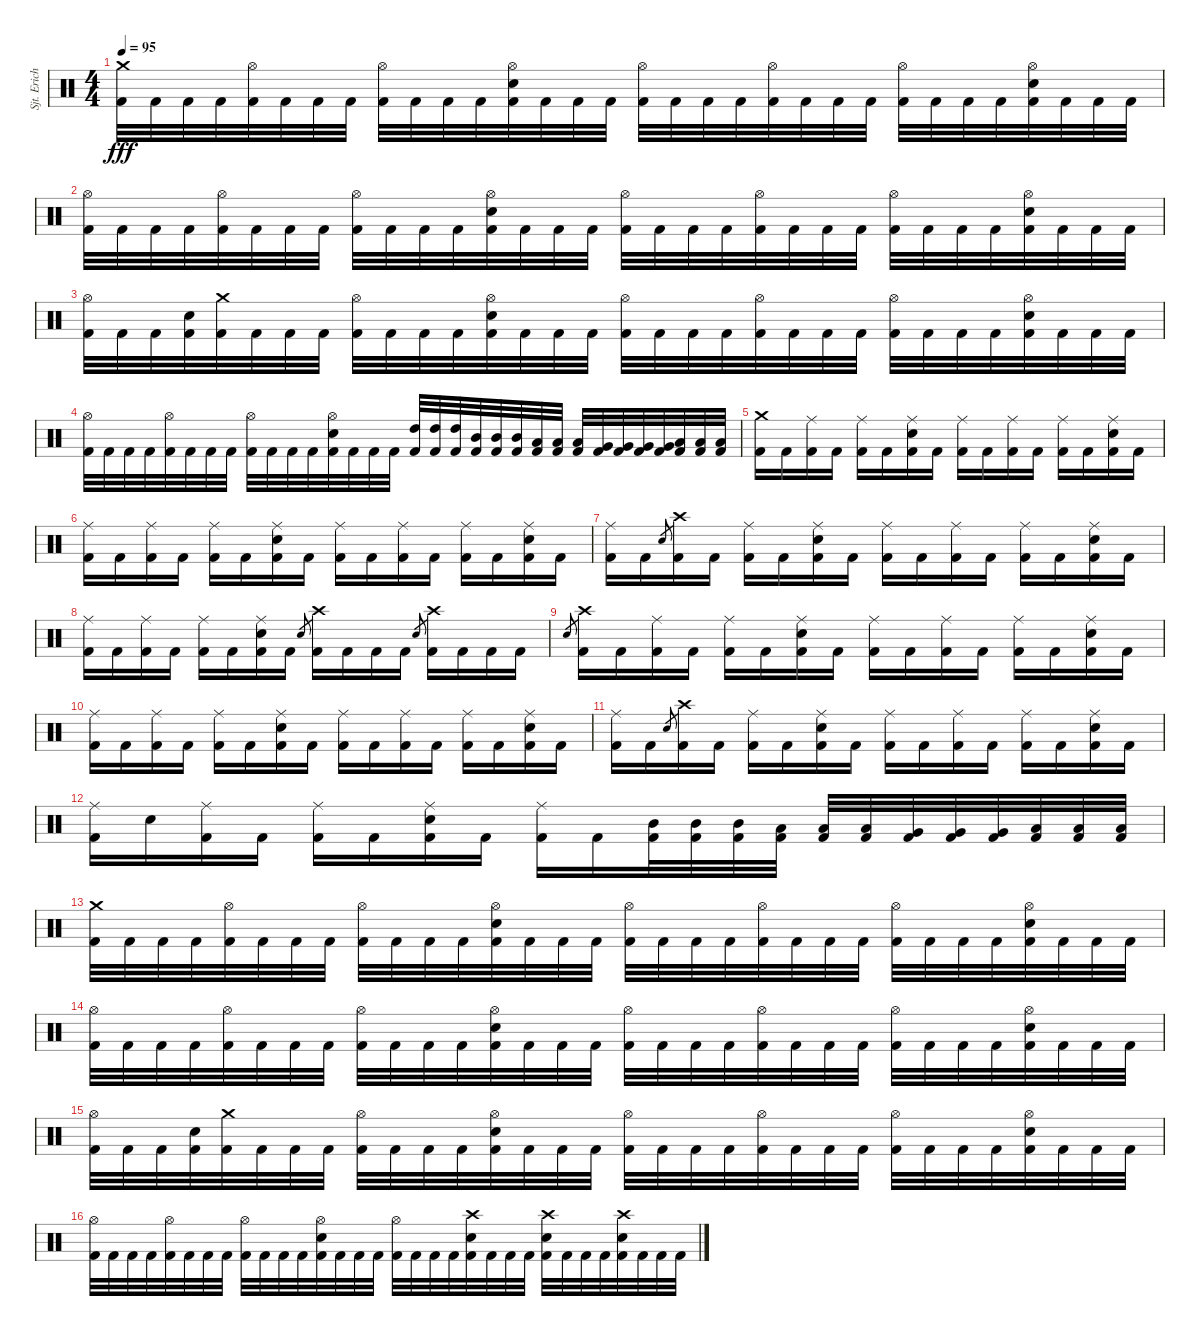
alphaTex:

\track ("Sjt. Erichsen" "Sjt. Erich") {instrument percussion}
\staff {score}
\articulation defaults
\ts (4 4)
\tempo 95
\clef neutral
\ks c
("Crash medium (hit)" "Kick (hit) 2").32{dy fff} "Kick (hit) 2".32 "Kick (hit) 2".32 "Kick (hit) 2".32 ("Hi-Hat (open)" "Kick (hit) 2").32 "Kick (hit) 2".32 "Kick (hit) 2".32 "Kick (hit) 2".32 ("Hi-Hat (open)" "Kick (hit) 2").32 "Kick (hit) 2".32 "Kick (hit) 2".32 "Kick (hit) 2".32 ("Hi-Hat (open)" "Electric Snare (hit)" "Kick (hit) 2").32 "Kick (hit) 2".32 "Kick (hit) 2".32 "Kick (hit) 2".32 ("Hi-Hat (open)" "Kick (hit) 2").32 "Kick (hit) 2".32 "Kick (hit) 2".32 "Kick (hit) 2".32 ("Hi-Hat (open)" "Kick (hit) 2").32 "Kick (hit) 2".32 "Kick (hit) 2".32 "Kick (hit) 2".32 ("Hi-Hat (open)" "Kick (hit) 2").32 "Kick (hit) 2".32 "Kick (hit) 2".32 "Kick (hit) 2".32 ("Hi-Hat (open)" "Electric Snare (hit)" "Kick (hit) 2").32 "Kick (hit) 2".32 "Kick (hit) 2".32 "Kick (hit) 2".32 |
("Hi-Hat (open)" "Kick (hit) 2").32 "Kick (hit) 2".32 "Kick (hit) 2".32 "Kick (hit) 2".32 ("Hi-Hat (open)" "Kick (hit) 2").32 "Kick (hit) 2".32 "Kick (hit) 2".32 "Kick (hit) 2".32 ("Hi-Hat (open)" "Kick (hit) 2").32 "Kick (hit) 2".32 "Kick (hit) 2".32 "Kick (hit) 2".32 ("Hi-Hat (open)" "Electric Snare (hit)" "Kick (hit) 2").32 "Kick (hit) 2".32 "Kick (hit) 2".32 "Kick (hit) 2".32 ("Hi-Hat (open)" "Kick (hit) 2").32 "Kick (hit) 2".32 "Kick (hit) 2".32 "Kick (hit) 2".32 ("Hi-Hat (open)" "Kick (hit) 2").32 "Kick (hit) 2".32 "Kick (hit) 2".32 "Kick (hit) 2".32 ("Hi-Hat (open)" "Kick (hit) 2").32 "Kick (hit) 2".32 "Kick (hit) 2".32 "Kick (hit) 2".32 ("Hi-Hat (open)" "Electric Snare (hit)" "Kick (hit) 2").32 "Kick (hit) 2".32 "Kick (hit) 2".32 "Kick (hit) 2".32 |
("Hi-Hat (open)" "Kick (hit) 2").32 "Kick (hit) 2".32 "Kick (hit) 2".32 ("Electric Snare (hit)" "Kick (hit) 2").32 ("Crash medium (hit)" "Kick (hit) 2").32 "Kick (hit) 2".32 "Kick (hit) 2".32 "Kick (hit) 2".32 ("Hi-Hat (open)" "Kick (hit) 2").32 "Kick (hit) 2".32 "Kick (hit) 2".32 "Kick (hit) 2".32 ("Hi-Hat (open)" "Electric Snare (hit)" "Kick (hit) 2").32 "Kick (hit) 2".32 "Kick (hit) 2".32 "Kick (hit) 2".32 ("Hi-Hat (open)" "Kick (hit) 2").32 "Kick (hit) 2".32 "Kick (hit) 2".32 "Kick (hit) 2".32 ("Hi-Hat (open)" "Kick (hit) 2").32 "Kick (hit) 2".32 "Kick (hit) 2".32 "Kick (hit) 2".32 ("Hi-Hat (open)" "Kick (hit) 2").32 "Kick (hit) 2".32 "Kick (hit) 2".32 "Kick (hit) 2".32 ("Hi-Hat (open)" "Electric Snare (hit)" "Kick (hit) 2").32 "Kick (hit) 2".32 "Kick (hit) 2".32 "Kick (hit) 2".32 |
("Hi-Hat (open)" "Kick (hit) 2").32 "Kick (hit) 2".32 "Kick (hit) 2".32 "Kick (hit) 2".32 ("Hi-Hat (open)" "Kick (hit) 2").32 "Kick (hit) 2".32 "Kick (hit) 2".32 "Kick (hit) 2".32 ("Hi-Hat (open)" "Kick (hit) 2").32 "Kick (hit) 2".32 "Kick (hit) 2".32 "Kick (hit) 2".32 ("Hi-Hat (open)" "Electric Snare (hit)" "Kick (hit) 2").32 "Kick (hit) 2".32 "Kick (hit) 2".32 "Kick (hit) 2".32 ("High Tom (hit)" "Kick (hit) 2").32 ("High Tom (hit)" "Kick (hit) 2").32 ("High Tom (hit)" "Kick (hit) 2").32 ("Mid Tom (hit)" "Kick (hit) 2").32 ("Mid Tom (hit)" "Kick (hit) 2").32 ("Mid Tom (hit)" "Kick (hit) 2").32 ("Low Tom (hit)" "Kick (hit) 2").32 ("Low Tom (hit)" "Kick (hit) 2").32 ("Low Tom (hit)" "Kick (hit) 2").32 ("Very Low Tom (hit)" "Kick (hit) 2").32 ("Very Low Tom (hit)" "Kick (hit) 2").32 ("Very Low Tom (hit)" "Kick (hit) 2").32 ("Very Low Tom (hit)" "Kick (hit) 2").32 ("Low Floor Tom (hit)" "Kick (hit) 2").32 ("Low Floor Tom (hit)" "Kick (hit) 2").32 ("Low Floor Tom (hit)" "Kick (hit) 2").32 |
("Crash medium (hit)" "Kick (hit) 2").16 "Kick (hit) 2".16 ("Ride (middle)" "Kick (hit) 2").16 "Kick (hit) 2".16 ("Ride (middle)" "Kick (hit) 2").16 "Kick (hit) 2".16 ("Ride (middle)" "Electric Snare (hit)" "Kick (hit) 2").16 "Kick (hit) 2".16 ("Ride (middle)" "Kick (hit) 2").16 "Kick (hit) 2".16 ("Ride (middle)" "Kick (hit) 2").16 "Kick (hit) 2".16 ("Ride (middle)" "Kick (hit) 2").16 "Kick (hit) 2".16 ("Ride (middle)" "Electric Snare (hit)" "Kick (hit) 2").16 "Kick (hit) 2".16 |
("Ride (middle)" "Kick (hit) 2").16 "Kick (hit) 2".16 ("Ride (middle)" "Kick (hit) 2").16 "Kick (hit) 2".16 ("Ride (middle)" "Kick (hit) 2").16 "Kick (hit) 2".16 ("Ride (middle)" "Electric Snare (hit)" "Kick (hit) 2").16 "Kick (hit) 2".16 ("Ride (middle)" "Kick (hit) 2").16 "Kick (hit) 2".16 ("Ride (middle)" "Kick (hit) 2").16 "Kick (hit) 2".16 ("Ride (middle)" "Kick (hit) 2").16 "Kick (hit) 2".16 ("Ride (middle)" "Electric Snare (hit)" "Kick (hit) 2").16 "Kick (hit) 2".16 |
("Ride (middle)" "Kick (hit) 2").16 "Kick (hit) 2".16 "Electric Snare (hit)".8{gr} ("Crash high (hit)" "Kick (hit) 2").16 "Kick (hit) 2".16 ("Ride (middle)" "Kick (hit) 2").16 "Kick (hit) 2".16 ("Ride (middle)" "Electric Snare (hit)" "Kick (hit) 2").16 "Kick (hit) 2".16 ("Ride (middle)" "Kick (hit) 2").16 "Kick (hit) 2".16 ("Ride (middle)" "Kick (hit) 2").16 "Kick (hit) 2".16 ("Ride (middle)" "Kick (hit) 2").16 "Kick (hit) 2".16 ("Ride (middle)" "Electric Snare (hit)" "Kick (hit) 2").16 "Kick (hit) 2".16 |
("Ride (middle)" "Kick (hit) 2").16 "Kick (hit) 2".16 ("Ride (middle)" "Kick (hit) 2").16 "Kick (hit) 2".16 ("Ride (middle)" "Kick (hit) 2").16 "Kick (hit) 2".16 ("Ride (middle)" "Electric Snare (hit)" "Kick (hit) 2").16 "Kick (hit) 2".16 "Electric Snare (hit)".8{gr} ("Crash high (hit)" "Kick (hit) 2").16 "Kick (hit) 2".16 "Kick (hit) 2".16 "Kick (hit) 2".16 "Electric Snare (hit)".8{gr} ("Crash high (hit)" "Kick (hit) 2").16 "Kick (hit) 2".16 "Kick (hit) 2".16 "Kick (hit) 2".16 |
"Electric Snare (hit)".8{gr} ("Crash high (hit)" "Kick (hit) 2").16 "Kick (hit) 2".16 ("Ride (middle)" "Kick (hit) 2").16 "Kick (hit) 2".16 ("Ride (middle)" "Kick (hit) 2").16 "Kick (hit) 2".16 ("Ride (middle)" "Electric Snare (hit)" "Kick (hit) 2").16 "Kick (hit) 2".16 ("Ride (middle)" "Kick (hit) 2").16 "Kick (hit) 2".16 ("Ride (middle)" "Kick (hit) 2").16 "Kick (hit) 2".16 ("Ride (middle)" "Kick (hit) 2").16 "Kick (hit) 2".16 ("Ride (middle)" "Electric Snare (hit)" "Kick (hit) 2").16 "Kick (hit) 2".16 |
("Ride (middle)" "Kick (hit) 2").16 "Kick (hit) 2".16 ("Ride (middle)" "Kick (hit) 2").16 "Kick (hit) 2".16 ("Ride (middle)" "Kick (hit) 2").16 "Kick (hit) 2".16 ("Ride (middle)" "Electric Snare (hit)" "Kick (hit) 2").16 "Kick (hit) 2".16 ("Ride (middle)" "Kick (hit) 2").16 "Kick (hit) 2".16 ("Ride (middle)" "Kick (hit) 2").16 "Kick (hit) 2".16 ("Ride (middle)" "Kick (hit) 2").16 "Kick (hit) 2".16 ("Ride (middle)" "Electric Snare (hit)" "Kick (hit) 2").16 "Kick (hit) 2".16 |
("Ride (middle)" "Kick (hit) 2").16 "Kick (hit) 2".16 "Electric Snare (hit)".8{gr} ("Crash high (hit)" "Kick (hit) 2").16 "Kick (hit) 2".16 ("Ride (middle)" "Kick (hit) 2").16 "Kick (hit) 2".16 ("Ride (middle)" "Electric Snare (hit)" "Kick (hit) 2").16 "Kick (hit) 2".16 ("Ride (middle)" "Kick (hit) 2").16 "Kick (hit) 2".16 ("Ride (middle)" "Kick (hit) 2").16 "Kick (hit) 2".16 ("Ride (middle)" "Kick (hit) 2").16 "Kick (hit) 2".16 ("Ride (middle)" "Electric Snare (hit)" "Kick (hit) 2").16 "Kick (hit) 2".16 |
("Ride (middle)" "Kick (hit) 2").16 "Snare (hit)".16 ("Ride (middle)" "Kick (hit) 2").16 "Kick (hit) 2".16 ("Ride (middle)" "Kick (hit) 2").16 "Kick (hit) 2".16 ("Ride (middle)" "Electric Snare (hit)" "Kick (hit) 2").16 "Kick (hit) 2".16 ("Ride (middle)" "Kick (hit) 2").16 "Kick (hit) 2".16 ("Mid Tom (hit)" "Kick (hit) 2").32 ("Mid Tom (hit)" "Kick (hit) 2").32 ("Mid Tom (hit)" "Kick (hit) 2").32 ("Low Tom (hit)" "Kick (hit) 2").32 ("Low Tom (hit)" "Kick (hit) 2").32 ("Low Tom (hit)" "Kick (hit) 2").32 ("Very Low Tom (hit)" "Kick (hit) 2").32 ("Very Low Tom (hit)" "Kick (hit) 2").32 ("Very Low Tom (hit)" "Kick (hit) 2").32 ("Low Floor Tom (hit)" "Kick (hit) 2").32 ("Low Floor Tom (hit)" "Kick (hit) 2").32 ("Low Floor Tom (hit)" "Kick (hit) 2").32 |
("Crash medium (hit)" "Kick (hit) 2").32 "Kick (hit) 2".32 "Kick (hit) 2".32 "Kick (hit) 2".32 ("Hi-Hat (open)" "Kick (hit) 2").32 "Kick (hit) 2".32 "Kick (hit) 2".32 "Kick (hit) 2".32 ("Hi-Hat (open)" "Kick (hit) 2").32 "Kick (hit) 2".32 "Kick (hit) 2".32 "Kick (hit) 2".32 ("Hi-Hat (open)" "Electric Snare (hit)" "Kick (hit) 2").32 "Kick (hit) 2".32 "Kick (hit) 2".32 "Kick (hit) 2".32 ("Hi-Hat (open)" "Kick (hit) 2").32 "Kick (hit) 2".32 "Kick (hit) 2".32 "Kick (hit) 2".32 ("Hi-Hat (open)" "Kick (hit) 2").32 "Kick (hit) 2".32 "Kick (hit) 2".32 "Kick (hit) 2".32 ("Hi-Hat (open)" "Kick (hit) 2").32 "Kick (hit) 2".32 "Kick (hit) 2".32 "Kick (hit) 2".32 ("Hi-Hat (open)" "Electric Snare (hit)" "Kick (hit) 2").32 "Kick (hit) 2".32 "Kick (hit) 2".32 "Kick (hit) 2".32 |
("Hi-Hat (open)" "Kick (hit) 2").32 "Kick (hit) 2".32 "Kick (hit) 2".32 "Kick (hit) 2".32 ("Hi-Hat (open)" "Kick (hit) 2").32 "Kick (hit) 2".32 "Kick (hit) 2".32 "Kick (hit) 2".32 ("Hi-Hat (open)" "Kick (hit) 2").32 "Kick (hit) 2".32 "Kick (hit) 2".32 "Kick (hit) 2".32 ("Hi-Hat (open)" "Electric Snare (hit)" "Kick (hit) 2").32 "Kick (hit) 2".32 "Kick (hit) 2".32 "Kick (hit) 2".32 ("Hi-Hat (open)" "Kick (hit) 2").32 "Kick (hit) 2".32 "Kick (hit) 2".32 "Kick (hit) 2".32 ("Hi-Hat (open)" "Kick (hit) 2").32 "Kick (hit) 2".32 "Kick (hit) 2".32 "Kick (hit) 2".32 ("Hi-Hat (open)" "Kick (hit) 2").32 "Kick (hit) 2".32 "Kick (hit) 2".32 "Kick (hit) 2".32 ("Hi-Hat (open)" "Electric Snare (hit)" "Kick (hit) 2").32 "Kick (hit) 2".32 "Kick (hit) 2".32 "Kick (hit) 2".32 |
("Hi-Hat (open)" "Kick (hit) 2").32 "Kick (hit) 2".32 "Kick (hit) 2".32 ("Electric Snare (hit)" "Kick (hit) 2").32 ("Crash medium (hit)" "Kick (hit) 2").32 "Kick (hit) 2".32 "Kick (hit) 2".32 "Kick (hit) 2".32 ("Hi-Hat (open)" "Kick (hit) 2").32 "Kick (hit) 2".32 "Kick (hit) 2".32 "Kick (hit) 2".32 ("Hi-Hat (open)" "Electric Snare (hit)" "Kick (hit) 2").32 "Kick (hit) 2".32 "Kick (hit) 2".32 "Kick (hit) 2".32 ("Hi-Hat (open)" "Kick (hit) 2").32 "Kick (hit) 2".32 "Kick (hit) 2".32 "Kick (hit) 2".32 ("Hi-Hat (open)" "Kick (hit) 2").32 "Kick (hit) 2".32 "Kick (hit) 2".32 "Kick (hit) 2".32 ("Hi-Hat (open)" "Kick (hit) 2").32 "Kick (hit) 2".32 "Kick (hit) 2".32 "Kick (hit) 2".32 ("Hi-Hat (open)" "Electric Snare (hit)" "Kick (hit) 2").32 "Kick (hit) 2".32 "Kick (hit) 2".32 "Kick (hit) 2".32 |
("Hi-Hat (open)" "Kick (hit) 2").32 "Kick (hit) 2".32 "Kick (hit) 2".32 "Kick (hit) 2".32 ("Hi-Hat (open)" "Kick (hit) 2").32 "Kick (hit) 2".32 "Kick (hit) 2".32 "Kick (hit) 2".32 ("Hi-Hat (open)" "Kick (hit) 2").32 "Kick (hit) 2".32 "Kick (hit) 2".32 "Kick (hit) 2".32 ("Hi-Hat (open)" "Electric Snare (hit)" "Kick (hit) 2").32 "Kick (hit) 2".32 "Kick (hit) 2".32 "Kick (hit) 2".32 ("Hi-Hat (open)" "Kick (hit) 2").32 "Kick (hit) 2".32 "Kick (hit) 2".32 "Kick (hit) 2".32 ("Crash high (hit)" "Electric Snare (hit)" "Kick (hit) 2").32 "Kick (hit) 2".32 "Kick (hit) 2".32 "Kick (hit) 2".32 ("Crash high (hit)" "Electric Snare (hit)" "Kick (hit) 2").32 "Kick (hit) 2".32 "Kick (hit) 2".32 "Kick (hit) 2".32 ("Crash high (hit)" "Electric Snare (hit)" "Kick (hit) 2").32 "Kick (hit) 2".32 "Kick (hit) 2".32 "Kick (hit) 2".32
